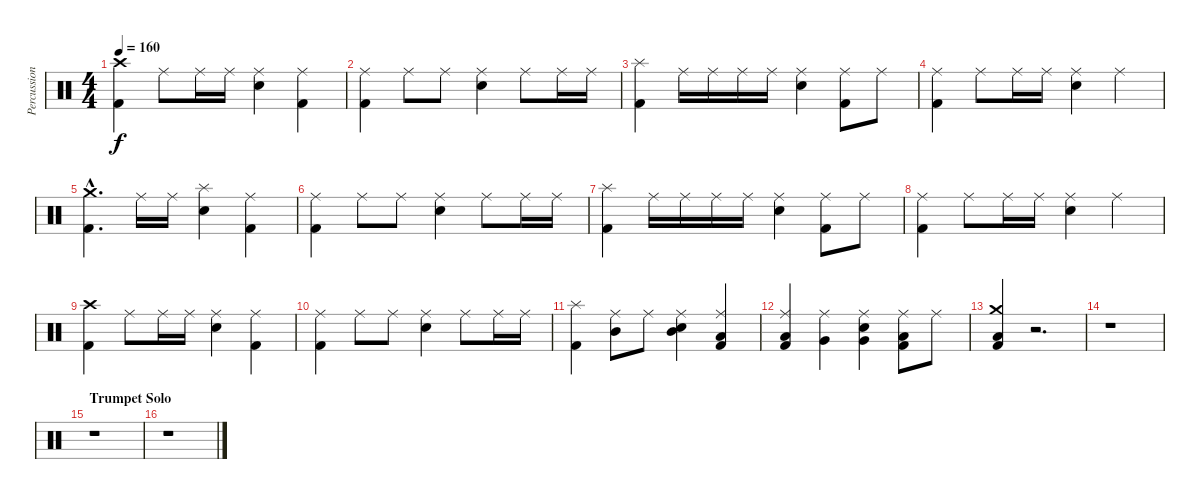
\track ("Percussion" "Percussion") {instrument percussion}
\staff {score}
\articulation defaults
\ts (4 4)
\tempo 160
\clef neutral
\ks c
("Crash high (hit)" "Kick (hit) 2").4{dy f} "Ride (middle)".8 "Ride (middle)".16 "Ride (middle)".16 ("Ride (middle)" "Electric Snare (hit)").4 ("Ride (middle)" "Kick (hit) 2").4 |
("Ride (middle)" "Kick (hit) 2").4 "Ride (middle)".8 "Ride (middle)".8 ("Ride (middle)" "Electric Snare (hit)").4 "Ride (middle)".8 "Ride (middle)".16 "Ride (middle)".16 |
("Splash (hit)" "Kick (hit) 2").4 "Ride (middle)".16 "Ride (middle)".16 "Ride (middle)".16 "Ride (middle)".16 ("Ride (middle)" "Electric Snare (hit)").4 ("Ride (middle)" "Kick (hit) 2").8 "Ride (middle)".8 |
("Ride (middle)" "Kick (hit) 2").4 "Ride (middle)".8 "Ride (middle)".16 "Ride (middle)".16 ("Ride (middle)" "Electric Snare (hit)").4 "Ride (middle)".4 |
("Crash medium (hit)"{hac} "Kick (hit) 2"{hac}).4{d} "Ride (middle)".16 "Ride (middle)".16 ("Splash (hit)" "Electric Snare (hit)").4 ("Ride (middle)" "Kick (hit) 2").4 |
("Ride (middle)" "Kick (hit) 2").4 "Ride (middle)".8 "Ride (middle)".8 ("Ride (middle)" "Electric Snare (hit)").4 "Ride (middle)".8 "Ride (middle)".16 "Ride (middle)".16 |
("Splash (hit)" "Kick (hit) 2").4 "Ride (middle)".16 "Ride (middle)".16 "Ride (middle)".16 "Ride (middle)".16 ("Ride (middle)" "Electric Snare (hit)").4 ("Ride (middle)" "Kick (hit) 2").8 "Ride (middle)".8 |
("Ride (middle)" "Kick (hit) 2").4 "Ride (middle)".8 "Ride (middle)".16 "Ride (middle)".16 ("Ride (middle)" "Electric Snare (hit)").4 "Ride (middle)".4 |
("Crash high (hit)" "Kick (hit) 2").4 "Ride (middle)".8 "Ride (middle)".16 "Ride (middle)".16 ("Ride (middle)" "Electric Snare (hit)").4 ("Ride (middle)" "Kick (hit) 2").4 |
("Ride (middle)" "Kick (hit) 2").4 "Ride (middle)".8 "Ride (middle)".8 ("Ride (middle)" "Electric Snare (hit)").4 "Ride (middle)".8 "Ride (middle)".16 "Ride (middle)".16 |
("Splash (hit)" "Kick (hit) 2").4 ("Ride (middle)" "Mid Tom (hit)").8 "Ride (middle)".8 ("Ride (middle)" "Mid Tom (hit)" "Electric Snare (hit)").4 ("Ride (middle)" "Low Tom (hit)" "Kick (hit) 2").4 |
("Ride (middle)" "Low Tom (hit)" "Kick (hit) 2").4 ("Ride (middle)" "Very Low Tom (hit)").4 ("Ride (middle)" "Very Low Tom (hit)" "Electric Snare (hit)").4 ("Ride (middle)" "Low Floor Tom (hit)" "Kick (hit) 2").8 "Ride (middle)".8 |
("Crash medium (hit)" "Low Floor Tom (hit)" "Kick (hit) 2").4 r.2{d} |
r.1 |
\section ("" "Trumpet Solo")
r.1 |
r.1
